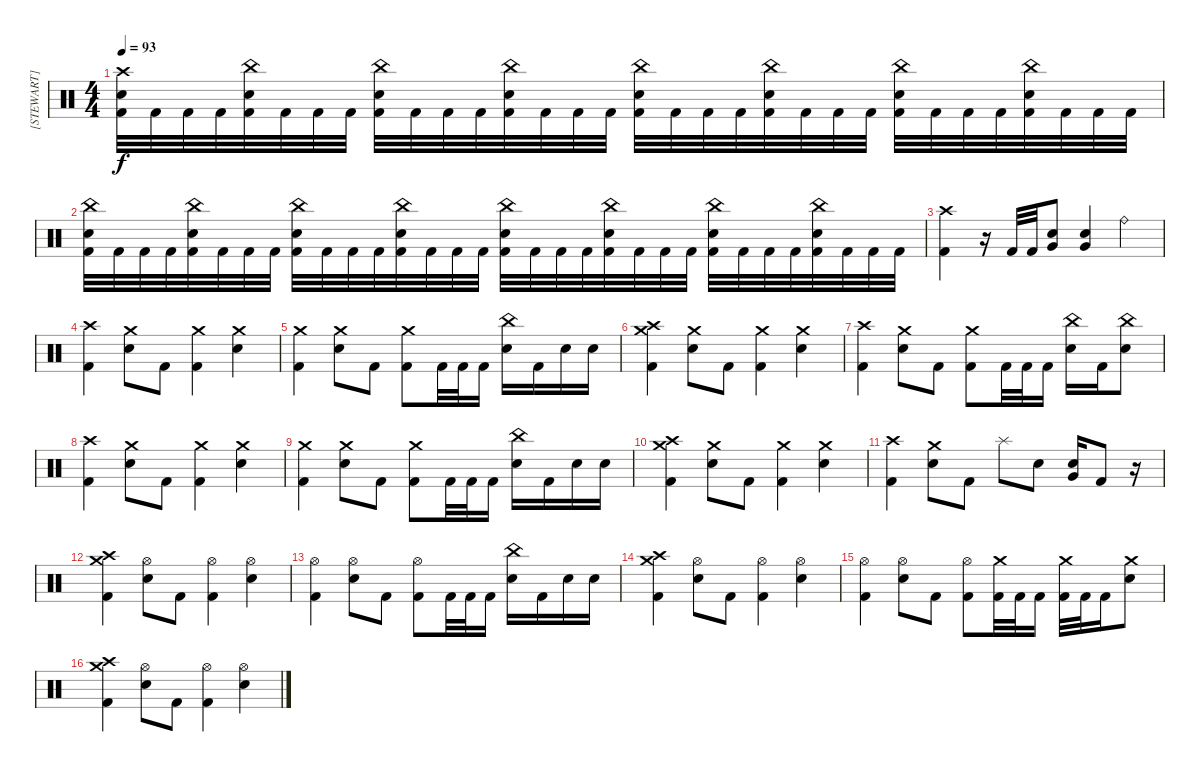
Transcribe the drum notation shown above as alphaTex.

\track ("[STEWART]" "[STEWART]") {instrument percussion}
\staff
\articulation defaults
\ts (4 4)
\tempo 93
\clef neutral
\ks c
("Crash high (hit)" "Snare (hit) 2" "Kick (hit) 2").32{dy f} "Kick (hit) 2".32 "Kick (hit) 2".32 "Kick (hit) 2".32 ("China (hit)" "Snare (hit) 2" "Kick (hit) 2").32 "Kick (hit) 2".32 "Kick (hit) 2".32 "Kick (hit) 2".32 ("China (hit)" "Snare (hit) 2" "Kick (hit) 2").32 "Kick (hit) 2".32 "Kick (hit) 2".32 "Kick (hit) 2".32 ("China (hit)" "Snare (hit) 2" "Kick (hit) 2").32 "Kick (hit) 2".32 "Kick (hit) 2".32 "Kick (hit) 2".32 ("China (hit)" "Snare (hit) 2" "Kick (hit) 2").32 "Kick (hit) 2".32 "Kick (hit) 2".32 "Kick (hit) 2".32 ("China (hit)" "Snare (hit) 2" "Kick (hit) 2").32 "Kick (hit) 2".32 "Kick (hit) 2".32 "Kick (hit) 2".32 ("China (hit)" "Snare (hit) 2" "Kick (hit) 2").32 "Kick (hit) 2".32 "Kick (hit) 2".32 "Kick (hit) 2".32 ("China (hit)" "Snare (hit) 2" "Kick (hit) 2").32 "Kick (hit) 2".32 "Kick (hit) 2".32 "Kick (hit) 2".32 |
("China (hit)" "Snare (hit) 2" "Kick (hit) 2").32 "Kick (hit) 2".32 "Kick (hit) 2".32 "Kick (hit) 2".32 ("China (hit)" "Snare (hit) 2" "Kick (hit) 2").32 "Kick (hit) 2".32 "Kick (hit) 2".32 "Kick (hit) 2".32 ("China (hit)" "Snare (hit) 2" "Kick (hit) 2").32 "Kick (hit) 2".32 "Kick (hit) 2".32 "Kick (hit) 2".32 ("China (hit)" "Snare (hit) 2" "Kick (hit) 2").32 "Kick (hit) 2".32 "Kick (hit) 2".32 "Kick (hit) 2".32 ("China (hit)" "Snare (hit) 2" "Kick (hit) 2").32 "Kick (hit) 2".32 "Kick (hit) 2".32 "Kick (hit) 2".32 ("China (hit)" "Snare (hit) 2" "Kick (hit) 2").32 "Kick (hit) 2".32 "Kick (hit) 2".32 "Kick (hit) 2".32 ("China (hit)" "Snare (hit) 2" "Kick (hit) 2").32 "Kick (hit) 2".32 "Kick (hit) 2".32 "Kick (hit) 2".32 ("China (hit)" "Snare (hit) 2" "Kick (hit) 2").32 "Kick (hit) 2".32 "Kick (hit) 2".32 "Kick (hit) 2".32 |
("Crash high (hit)" "Kick (hit) 2").4 r.16 "Kick (hit) 2".32 "Kick (hit) 2".32 ("Snare (hit) 2" "Very Low Tom (hit)").8 ("Snare (hit) 2" "Very Low Tom (hit)").4 "Ride (bell)".4 |
("Crash high (hit)" "Kick (hit) 2").4 ("Crash medium (hit)" "Snare (hit) 2").8 "Kick (hit) 2".8 ("Crash medium (hit)" "Kick (hit) 2").4 ("Crash medium (hit)" "Snare (hit) 2").4 |
("Crash medium (hit)" "Kick (hit) 2").4 ("Crash medium (hit)" "Snare (hit) 2").8 "Kick (hit) 2".8 ("Crash medium (hit)" "Kick (hit) 2").8 "Kick (hit) 2".32 "Kick (hit) 2".32 "Kick (hit) 2".16 ("China (hit)" "Snare (hit) 2").16 "Kick (hit) 2".16 "Snare (hit) 2".16 "Snare (hit) 2".16 |
("Crash high (hit)" "Crash medium (hit)" "Kick (hit) 2").4 ("Crash medium (hit)" "Snare (hit) 2").8 "Kick (hit) 2".8 ("Crash medium (hit)" "Kick (hit) 2").4 ("Crash medium (hit)" "Snare (hit) 2").4 |
("Crash high (hit)" "Kick (hit) 2").4 ("Crash medium (hit)" "Snare (hit) 2").8 "Kick (hit) 2".8 ("Crash medium (hit)" "Kick (hit) 2").8 "Kick (hit) 2".32 "Kick (hit) 2".32 "Kick (hit) 2".16 ("China (hit)" "Snare (hit) 2").16 "Kick (hit) 2".16 ("China (hit)" "Snare (hit) 2").8 |
("Crash high (hit)" "Kick (hit) 2").4 ("Crash medium (hit)" "Snare (hit) 2").8 "Kick (hit) 2".8 ("Crash medium (hit)" "Kick (hit) 2").4 ("Crash medium (hit)" "Snare (hit) 2").4 |
("Crash medium (hit)" "Kick (hit) 2").4 ("Crash medium (hit)" "Snare (hit) 2").8 "Kick (hit) 2".8 ("Crash medium (hit)" "Kick (hit) 2").8 "Kick (hit) 2".32 "Kick (hit) 2".32 "Kick (hit) 2".16 ("China (hit)" "Snare (hit) 2").16 "Kick (hit) 2".16 "Snare (hit) 2".16 "Snare (hit) 2".16 |
("Crash high (hit)" "Crash medium (hit)" "Kick (hit) 2").4 ("Crash medium (hit)" "Snare (hit) 2").8 "Kick (hit) 2".8 ("Crash medium (hit)" "Kick (hit) 2").4 ("Crash medium (hit)" "Snare (hit) 2").4 |
("Crash high (hit)" "Kick (hit) 2").4 ("Crash medium (hit)" "Snare (hit) 2").8 "Kick (hit) 2".8 "Splash (hit)".8 "Snare (hit) 2".8 ("Snare (hit) 2" "Very Low Tom (hit)").16 "Kick (hit) 2".8 r.16 |
("Crash high (hit)" "Crash medium (hit)" "Kick (hit) 2").4 ("Hi-Hat (open)" "Snare (hit) 2").8 "Kick (hit) 2".8 ("Hi-Hat (open)" "Kick (hit) 2").4 ("Hi-Hat (open)" "Snare (hit) 2").4 |
("Hi-Hat (open)" "Kick (hit) 2").4 ("Hi-Hat (open)" "Snare (hit) 2").8 "Kick (hit) 2".8 ("Hi-Hat (open)" "Kick (hit) 2").8 "Kick (hit) 2".32 "Kick (hit) 2".32 "Kick (hit) 2".16 ("China (hit)" "Snare (hit) 2").16 "Kick (hit) 2".16 "Snare (hit) 2".16 "Snare (hit) 2".16 |
("Crash high (hit)" "Crash medium (hit)" "Kick (hit) 2").4 ("Hi-Hat (open)" "Snare (hit) 2").8 "Kick (hit) 2".8 ("Hi-Hat (open)" "Kick (hit) 2").4 ("Hi-Hat (open)" "Snare (hit) 2").4 |
("Hi-Hat (open)" "Kick (hit) 2").4 ("Hi-Hat (open)" "Snare (hit) 2").8 "Kick (hit) 2".8 ("Hi-Hat (open)" "Kick (hit) 2").8 ("Crash medium (hit)" "Kick (hit) 2").32 "Kick (hit) 2".32 "Kick (hit) 2".16 ("Crash medium (hit)" "Kick (hit) 2").32 "Kick (hit) 2".32 "Kick (hit) 2".16 ("Crash medium (hit)" "Snare (hit) 2").8 |
("Crash high (hit)" "Crash medium (hit)" "Kick (hit) 2").4 ("Hi-Hat (open)" "Snare (hit) 2").8 "Kick (hit) 2".8 ("Hi-Hat (open)" "Kick (hit) 2").4 ("Hi-Hat (open)" "Snare (hit) 2").4
